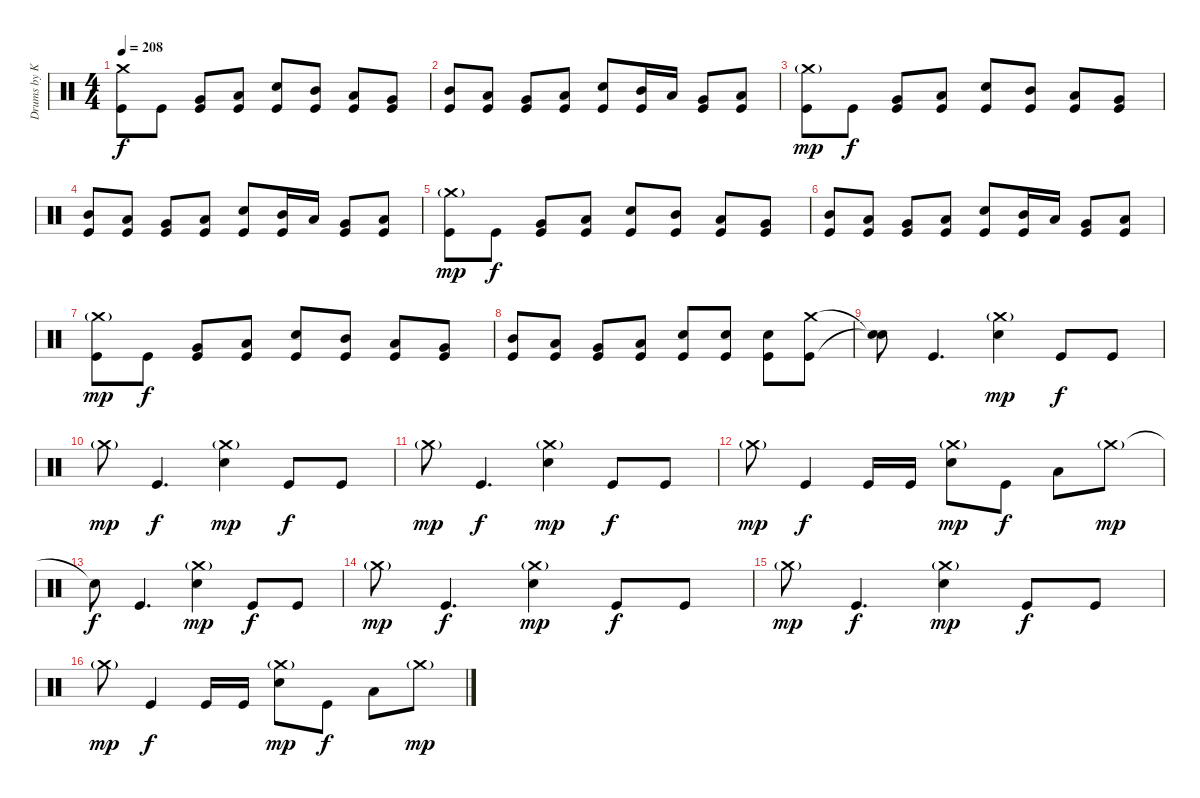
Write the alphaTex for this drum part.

\track ("Drums by Kwonnie" "Drums by K") {instrument percussion}
\staff {score}
\articulation defaults
\ts (4 4)
\tempo 208
\clef neutral
\ks c
("Crash medium (hit)" "Kick (hit)").8{dy f} "Kick (hit)".8 ("Very Low Tom (hit)" "Kick (hit)").8 ("Low Floor Tom (hit)" "Kick (hit)").8 ("Electric Snare (hit)" "Kick (hit)").8 ("Mid Tom (hit)" "Kick (hit)").8 ("Low Tom (hit)" "Kick (hit)").8 ("Very Low Tom (hit)" "Kick (hit)").8 |
("Mid Tom (hit)" "Kick (hit)").8 ("Low Tom (hit)" "Kick (hit)").8 ("Very Low Tom (hit)" "Kick (hit)").8 ("Low Floor Tom (hit)" "Kick (hit)").8 ("Electric Snare (hit)" "Kick (hit)").8 ("Mid Tom (hit)" "Kick (hit)").16 "Low Tom (hit)".16 ("Very Low Tom (hit)" "Kick (hit)").8 ("Low Floor Tom (hit)" "Kick (hit)").8 |
("Crash medium (hit)"{g} "Kick (hit)").8{dy mp} "Kick (hit)".8{dy f} ("Very Low Tom (hit)" "Kick (hit)").8 ("Low Floor Tom (hit)" "Kick (hit)").8 ("Electric Snare (hit)" "Kick (hit)").8 ("Mid Tom (hit)" "Kick (hit)").8 ("Low Tom (hit)" "Kick (hit)").8 ("Very Low Tom (hit)" "Kick (hit)").8 |
("Mid Tom (hit)" "Kick (hit)").8 ("Low Tom (hit)" "Kick (hit)").8 ("Very Low Tom (hit)" "Kick (hit)").8 ("Low Floor Tom (hit)" "Kick (hit)").8 ("Electric Snare (hit)" "Kick (hit)").8 ("Mid Tom (hit)" "Kick (hit)").16 "Low Tom (hit)".16 ("Very Low Tom (hit)" "Kick (hit)").8 ("Low Floor Tom (hit)" "Kick (hit)").8 |
("Crash medium (hit)"{g} "Kick (hit)").8{dy mp} "Kick (hit)".8{dy f} ("Very Low Tom (hit)" "Kick (hit)").8 ("Low Floor Tom (hit)" "Kick (hit)").8 ("Electric Snare (hit)" "Kick (hit)").8 ("Mid Tom (hit)" "Kick (hit)").8 ("Low Tom (hit)" "Kick (hit)").8 ("Very Low Tom (hit)" "Kick (hit)").8 |
("Mid Tom (hit)" "Kick (hit)").8 ("Low Tom (hit)" "Kick (hit)").8 ("Very Low Tom (hit)" "Kick (hit)").8 ("Low Floor Tom (hit)" "Kick (hit)").8 ("Electric Snare (hit)" "Kick (hit)").8 ("Mid Tom (hit)" "Kick (hit)").16 "Low Tom (hit)".16 ("Very Low Tom (hit)" "Kick (hit)").8 ("Low Floor Tom (hit)" "Kick (hit)").8 |
("Crash medium (hit)"{g} "Kick (hit)").8{dy mp} "Kick (hit)".8{dy f} ("Very Low Tom (hit)" "Kick (hit)").8 ("Low Floor Tom (hit)" "Kick (hit)").8 ("Electric Snare (hit)" "Kick (hit)").8 ("Mid Tom (hit)" "Kick (hit)").8 ("Low Tom (hit)" "Kick (hit)").8 ("Very Low Tom (hit)" "Kick (hit)").8 |
("Mid Tom (hit)" "Kick (hit)").8 ("Low Tom (hit)" "Kick (hit)").8 ("Very Low Tom (hit)" "Kick (hit)").8 ("Low Floor Tom (hit)" "Kick (hit)").8 ("Electric Snare (hit)" "Kick (hit)").8 ("Electric Snare (hit)" "Kick (hit)").8 ("Electric Snare (hit)" "Kick (hit)").8 ("Crash medium (hit)" "Kick (hit)").8 |
("Snare (hit)"{t} "Snare (hit)"{t}).8 "Kick (hit)".4{d} ("Crash medium (hit)"{g} "Electric Snare (hit)").4{dy mp} "Kick (hit)".8{dy f} "Kick (hit)".8 |
"Crash medium (hit)"{g}.8{dy mp} "Kick (hit)".4{d dy f} ("Crash medium (hit)"{g} "Electric Snare (hit)").4{dy mp} "Kick (hit)".8{dy f} "Kick (hit)".8 |
"Crash medium (hit)"{g}.8{dy mp} "Kick (hit)".4{d dy f} ("Crash medium (hit)"{g} "Electric Snare (hit)").4{dy mp} "Kick (hit)".8{dy f} "Kick (hit)".8 |
"Crash medium (hit)"{g}.8{dy mp} "Kick (hit)".4{dy f} "Kick (hit)".16 "Kick (hit)".16 ("Crash medium (hit)"{g} "Electric Snare (hit)").8{dy mp} "Kick (hit)".8{dy f} "Low Floor Tom (hit)".8 "Crash medium (hit)"{g}.8{dy mp} |
"Snare (hit)"{t}.8{dy f} "Kick (hit)".4{d} ("Crash medium (hit)"{g} "Electric Snare (hit)").4{dy mp} "Kick (hit)".8{dy f} "Kick (hit)".8 |
"Crash medium (hit)"{g}.8{dy mp} "Kick (hit)".4{d dy f} ("Crash medium (hit)"{g} "Electric Snare (hit)").4{dy mp} "Kick (hit)".8{dy f} "Kick (hit)".8 |
"Crash medium (hit)"{g}.8{dy mp} "Kick (hit)".4{d dy f} ("Crash medium (hit)"{g} "Electric Snare (hit)").4{dy mp} "Kick (hit)".8{dy f} "Kick (hit)".8 |
"Crash medium (hit)"{g}.8{dy mp} "Kick (hit)".4{dy f} "Kick (hit)".16 "Kick (hit)".16 ("Crash medium (hit)"{g} "Electric Snare (hit)").8{dy mp} "Kick (hit)".8{dy f} "Low Floor Tom (hit)".8 "Crash medium (hit)"{g}.8{dy mp}
